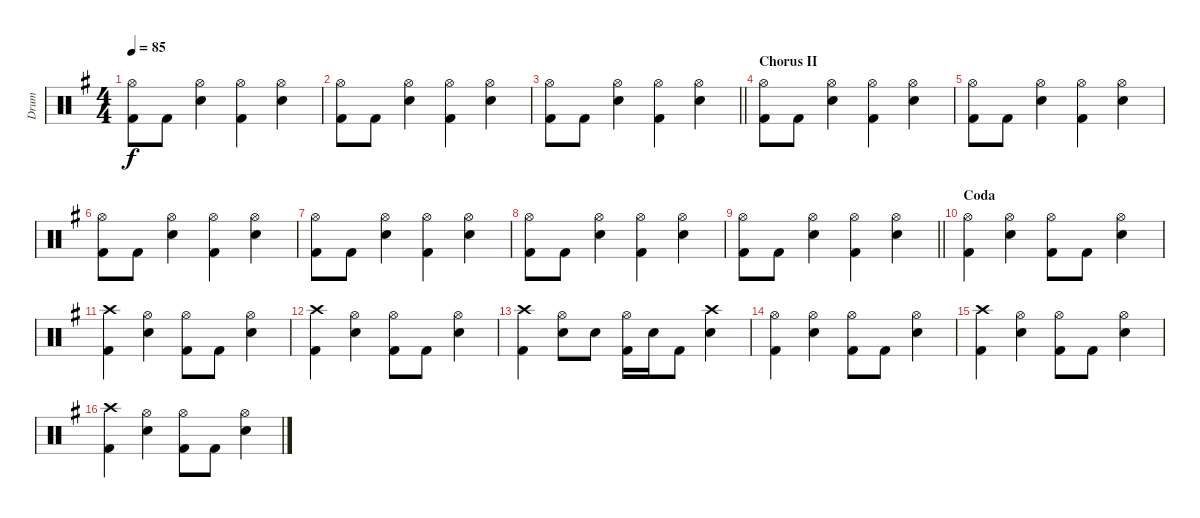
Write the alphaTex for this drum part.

\track ("Drum" "Drum") {instrument percussion}
\staff {score}
\articulation defaults
\ts (4 4)
\tempo 85
\clef neutral
\ks g
("Kick (hit) 2" "Hi-Hat (open)").8{dy f} "Kick (hit) 2".8 ("Electric Snare (hit)" "Hi-Hat (open)").4 ("Kick (hit) 2" "Hi-Hat (open)").4 ("Electric Snare (hit)" "Hi-Hat (open)").4 |
("Kick (hit) 2" "Hi-Hat (open)").8 "Kick (hit) 2".8 ("Electric Snare (hit)" "Hi-Hat (open)").4 ("Kick (hit) 2" "Hi-Hat (open)").4 ("Electric Snare (hit)" "Hi-Hat (open)").4 |
\barLineRight lightlight
("Kick (hit) 2" "Hi-Hat (open)").8 "Kick (hit) 2".8 ("Electric Snare (hit)" "Hi-Hat (open)").4 ("Kick (hit) 2" "Hi-Hat (open)").4 ("Electric Snare (hit)" "Hi-Hat (open)").4 |
\section ("" "Chorus II")
("Kick (hit) 2" "Hi-Hat (open)").8 "Kick (hit) 2".8 ("Electric Snare (hit)" "Hi-Hat (open)").4 ("Kick (hit) 2" "Hi-Hat (open)").4 ("Electric Snare (hit)" "Hi-Hat (open)").4 |
("Kick (hit) 2" "Hi-Hat (open)").8 "Kick (hit) 2".8 ("Electric Snare (hit)" "Hi-Hat (open)").4 ("Kick (hit) 2" "Hi-Hat (open)").4 ("Electric Snare (hit)" "Hi-Hat (open)").4 |
("Kick (hit) 2" "Hi-Hat (open)").8 "Kick (hit) 2".8 ("Electric Snare (hit)" "Hi-Hat (open)").4 ("Kick (hit) 2" "Hi-Hat (open)").4 ("Electric Snare (hit)" "Hi-Hat (open)").4 |
("Kick (hit) 2" "Hi-Hat (open)").8 "Kick (hit) 2".8 ("Electric Snare (hit)" "Hi-Hat (open)").4 ("Kick (hit) 2" "Hi-Hat (open)").4 ("Electric Snare (hit)" "Hi-Hat (open)").4 |
("Kick (hit) 2" "Hi-Hat (open)").8 "Kick (hit) 2".8 ("Electric Snare (hit)" "Hi-Hat (open)").4 ("Kick (hit) 2" "Hi-Hat (open)").4 ("Electric Snare (hit)" "Hi-Hat (open)").4 |
\barLineRight lightlight
("Kick (hit) 2" "Hi-Hat (open)").8 "Kick (hit) 2".8 ("Electric Snare (hit)" "Hi-Hat (open)").4 ("Kick (hit) 2" "Hi-Hat (open)").4 ("Electric Snare (hit)" "Hi-Hat (open)").4 |
\section ("" "Coda")
("Kick (hit) 2" "Hi-Hat (open)").4 ("Electric Snare (hit)" "Hi-Hat (open)").4 ("Kick (hit) 2" "Hi-Hat (open)").8 "Kick (hit) 2".8 ("Electric Snare (hit)" "Hi-Hat (open)").4 |
("Kick (hit) 2" "Crash high (hit)").4 ("Electric Snare (hit)" "Hi-Hat (open)").4 ("Kick (hit) 2" "Hi-Hat (open)").8 "Kick (hit) 2".8 ("Electric Snare (hit)" "Hi-Hat (open)").4 |
("Kick (hit) 2" "Crash high (hit)").4 ("Electric Snare (hit)" "Hi-Hat (open)").4 ("Kick (hit) 2" "Hi-Hat (open)").8 "Kick (hit) 2".8 ("Electric Snare (hit)" "Hi-Hat (open)").4 |
("Kick (hit) 2" "Crash high (hit)").4 ("Electric Snare (hit)" "Hi-Hat (open)").8 "Electric Snare (hit)".8 ("Kick (hit) 2" "Hi-Hat (open)").16 "Electric Snare (hit)".16 "Kick (hit) 2".8 ("Electric Snare (hit)" "Crash high (hit)").4 |
("Kick (hit) 2" "Hi-Hat (open)").4 ("Electric Snare (hit)" "Hi-Hat (open)").4 ("Kick (hit) 2" "Hi-Hat (open)").8 "Kick (hit) 2".8 ("Electric Snare (hit)" "Hi-Hat (open)").4 |
("Kick (hit) 2" "Crash high (hit)").4 ("Electric Snare (hit)" "Hi-Hat (open)").4 ("Kick (hit) 2" "Hi-Hat (open)").8 "Kick (hit) 2".8 ("Electric Snare (hit)" "Hi-Hat (open)").4 |
("Kick (hit) 2" "Crash high (hit)").4 ("Electric Snare (hit)" "Hi-Hat (open)").4 ("Kick (hit) 2" "Hi-Hat (open)").8 "Kick (hit) 2".8 ("Electric Snare (hit)" "Hi-Hat (open)").4
